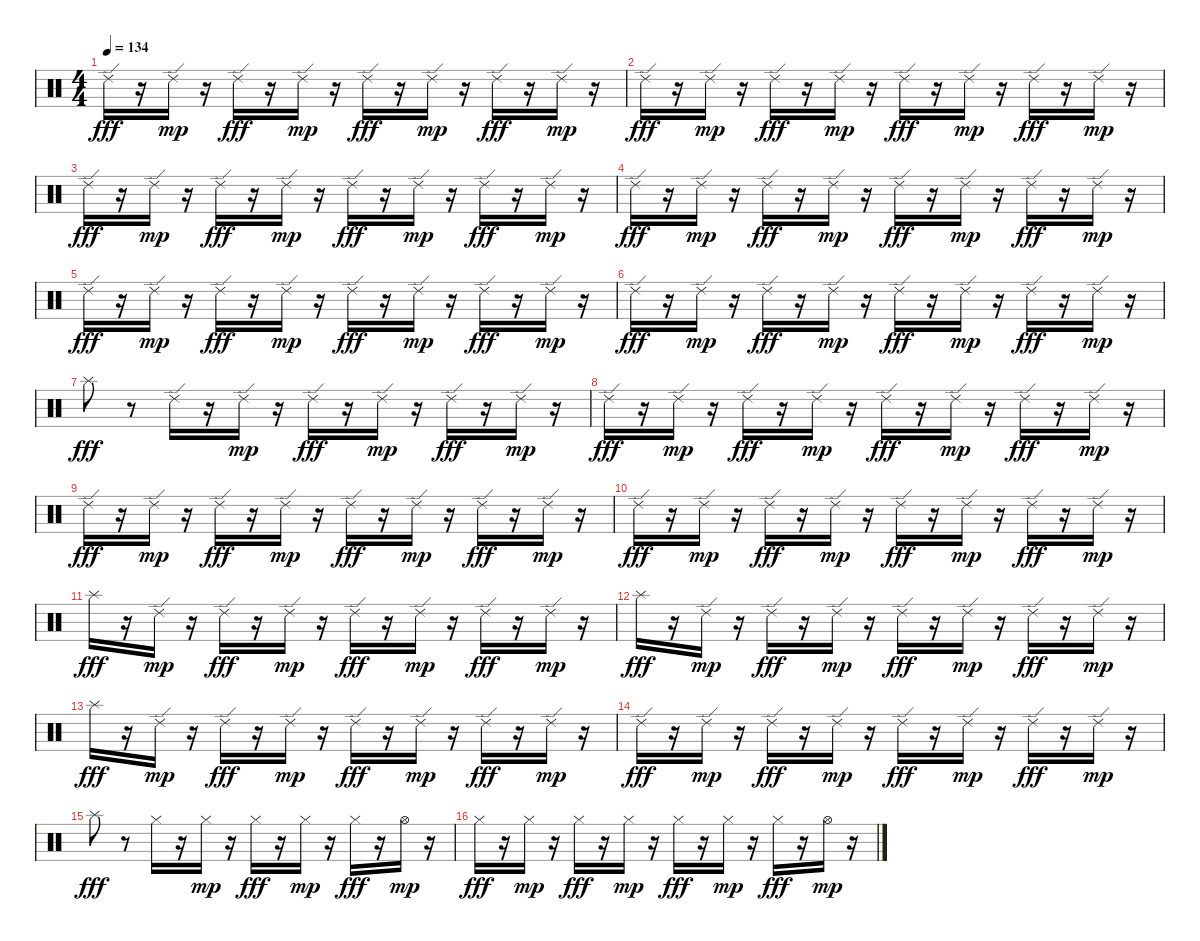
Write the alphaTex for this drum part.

\track "" {instrument percussion}
\staff {score}
\articulation defaults
\ts (4 4)
\tempo 134
\clef neutral
\ks c "Ride (edge) 2".16{dy fff}
r.16 "Ride (edge) 2".16{dy mp} r.16 "Ride (edge) 2".16{dy fff} r.16 "Ride (edge) 2".16{dy mp} r.16 "Ride (edge) 2".16{dy fff} r.16 "Ride (edge) 2".16{dy mp} r.16 "Ride (edge) 2".16{dy fff} r.16 "Ride (edge) 2".16{dy mp} r.16 |
"Ride (edge) 2".16{dy fff} r.16 "Ride (edge) 2".16{dy mp} r.16 "Ride (edge) 2".16{dy fff} r.16 "Ride (edge) 2".16{dy mp} r.16 "Ride (edge) 2".16{dy fff} r.16 "Ride (edge) 2".16{dy mp} r.16 "Ride (edge) 2".16{dy fff} r.16 "Ride (edge) 2".16{dy mp} r.16 |
"Ride (edge) 2".16{dy fff} r.16 "Ride (edge) 2".16{dy mp} r.16 "Ride (edge) 2".16{dy fff} r.16 "Ride (edge) 2".16{dy mp} r.16 "Ride (edge) 2".16{dy fff} r.16 "Ride (edge) 2".16{dy mp} r.16 "Ride (edge) 2".16{dy fff} r.16 "Ride (edge) 2".16{dy mp} r.16 |
"Ride (edge) 2".16{dy fff} r.16 "Ride (edge) 2".16{dy mp} r.16 "Ride (edge) 2".16{dy fff} r.16 "Ride (edge) 2".16{dy mp} r.16 "Ride (edge) 2".16{dy fff} r.16 "Ride (edge) 2".16{dy mp} r.16 "Ride (edge) 2".16{dy fff} r.16 "Ride (edge) 2".16{dy mp} r.16 |
"Ride (edge) 2".16{dy fff} r.16 "Ride (edge) 2".16{dy mp} r.16 "Ride (edge) 2".16{dy fff} r.16 "Ride (edge) 2".16{dy mp} r.16 "Ride (edge) 2".16{dy fff} r.16 "Ride (edge) 2".16{dy mp} r.16 "Ride (edge) 2".16{dy fff} r.16 "Ride (edge) 2".16{dy mp} r.16 |
"Ride (edge) 2".16{dy fff} r.16 "Ride (edge) 2".16{dy mp} r.16 "Ride (edge) 2".16{dy fff} r.16 "Ride (edge) 2".16{dy mp} r.16 "Ride (edge) 2".16{dy fff} r.16 "Ride (edge) 2".16{dy mp} r.16 "Ride (edge) 2".16{dy fff} r.16 "Ride (edge) 2".16{dy mp} r.16 |
"Splash (hit)".8{dy fff} r.8 "Ride (edge) 2".16 r.16 "Ride (edge) 2".16{dy mp} r.16 "Ride (edge) 2".16{dy fff} r.16 "Ride (edge) 2".16{dy mp} r.16 "Ride (edge) 2".16{dy fff} r.16 "Ride (edge) 2".16{dy mp} r.16 |
"Ride (edge) 2".16{dy fff} r.16 "Ride (edge) 2".16{dy mp} r.16 "Ride (edge) 2".16{dy fff} r.16 "Ride (edge) 2".16{dy mp} r.16 "Ride (edge) 2".16{dy fff} r.16 "Ride (edge) 2".16{dy mp} r.16 "Ride (edge) 2".16{dy fff} r.16 "Ride (edge) 2".16{dy mp} r.16 |
"Ride (edge) 2".16{dy fff} r.16 "Ride (edge) 2".16{dy mp} r.16 "Ride (edge) 2".16{dy fff} r.16 "Ride (edge) 2".16{dy mp} r.16 "Ride (edge) 2".16{dy fff} r.16 "Ride (edge) 2".16{dy mp} r.16 "Ride (edge) 2".16{dy fff} r.16 "Ride (edge) 2".16{dy mp} r.16 |
"Ride (edge) 2".16{dy fff} r.16 "Ride (edge) 2".16{dy mp} r.16 "Ride (edge) 2".16{dy fff} r.16 "Ride (edge) 2".16{dy mp} r.16 "Ride (edge) 2".16{dy fff} r.16 "Ride (edge) 2".16{dy mp} r.16 "Ride (edge) 2".16{dy fff} r.16 "Ride (edge) 2".16{dy mp} r.16 |
"Splash (hit)".16{dy fff} r.16 "Ride (edge) 2".16{dy mp} r.16 "Ride (edge) 2".16{dy fff} r.16 "Ride (edge) 2".16{dy mp} r.16 "Ride (edge) 2".16{dy fff} r.16 "Ride (edge) 2".16{dy mp} r.16 "Ride (edge) 2".16{dy fff} r.16 "Ride (edge) 2".16{dy mp} r.16 |
"Splash (hit)".16{dy fff} r.16 "Ride (edge) 2".16{dy mp} r.16 "Ride (edge) 2".16{dy fff} r.16 "Ride (edge) 2".16{dy mp} r.16 "Ride (edge) 2".16{dy fff} r.16 "Ride (edge) 2".16{dy mp} r.16 "Ride (edge) 2".16{dy fff} r.16 "Ride (edge) 2".16{dy mp} r.16 |
"Splash (hit)".16{dy fff} r.16 "Ride (edge) 2".16{dy mp} r.16 "Ride (edge) 2".16{dy fff} r.16 "Ride (edge) 2".16{dy mp} r.16 "Ride (edge) 2".16{dy fff} r.16 "Ride (edge) 2".16{dy mp} r.16 "Ride (edge) 2".16{dy fff} r.16 "Ride (edge) 2".16{dy mp} r.16 |
"Ride (edge) 2".16{dy fff} r.16 "Ride (edge) 2".16{dy mp} r.16 "Ride (edge) 2".16{dy fff} r.16 "Ride (edge) 2".16{dy mp} r.16 "Ride (edge) 2".16{dy fff} r.16 "Ride (edge) 2".16{dy mp} r.16 "Ride (edge) 2".16{dy fff} r.16 "Ride (edge) 2".16{dy mp} r.16 |
"Splash (hit)".8{dy fff} r.8 "Hi-Hat (closed)".16 r.16 "Hi-Hat (closed)".16{dy mp} r.16 "Hi-Hat (closed)".16{dy fff} r.16 "Hi-Hat (closed)".16{dy mp} r.16 "Hi-Hat (closed)".16{dy fff} r.16 "Hi-Hat (open)".16{dy mp} r.16 |
"Hi-Hat (closed)".16{dy fff} r.16 "Hi-Hat (closed)".16{dy mp} r.16 "Hi-Hat (closed)".16{dy fff} r.16 "Hi-Hat (closed)".16{dy mp} r.16 "Hi-Hat (closed)".16{dy fff} r.16 "Hi-Hat (closed)".16{dy mp} r.16 "Hi-Hat (closed)".16{dy fff} r.16 "Hi-Hat (open)".16{dy mp} r.16
